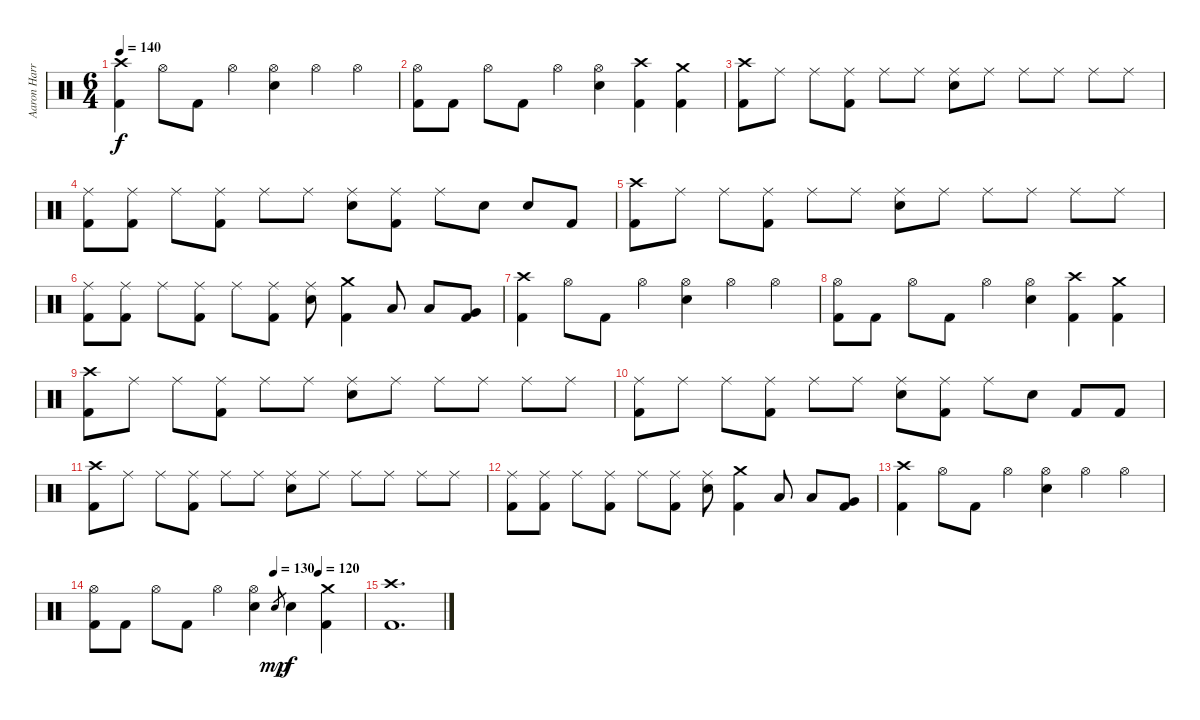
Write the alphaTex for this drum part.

\track ("Aaron Harris" "Aaron Harr") {instrument percussion}
\staff {score}
\articulation defaults
\ts (6 4)
\tempo 140
\clef neutral
\ks c
("Crash high (hit)" "Kick (hit) 2").4{dy f} "Hi-Hat (open)".8 "Kick (hit) 2".8 "Hi-Hat (open)".4 ("Hi-Hat (open)" "Electric Snare (hit)").4 "Hi-Hat (open)".4 "Hi-Hat (open)".4 |
("Hi-Hat (open)" "Kick (hit) 2").8 "Kick (hit) 2".8 "Hi-Hat (open)".8 "Kick (hit) 2".8 "Hi-Hat (open)".4 ("Hi-Hat (open)" "Electric Snare (hit)").4 ("Crash high (hit)" "Kick (hit) 2").4 ("Crash medium (hit)" "Kick (hit) 2").4 |
("Crash high (hit)" "Kick (hit) 2").8 "Ride (middle)".8 "Ride (middle)".8 ("Ride (middle)" "Kick (hit) 2").8 "Ride (middle)".8 "Ride (middle)".8 ("Ride (middle)" "Electric Snare (hit)").8 "Ride (middle)".8 "Ride (middle)".8 "Ride (middle)".8 "Ride (middle)".8 "Ride (middle)".8 |
("Ride (middle)" "Kick (hit) 2").8 ("Ride (middle)" "Kick (hit) 2").8 "Ride (middle)".8 ("Ride (middle)" "Kick (hit) 2").8 "Ride (middle)".8 "Ride (middle)".8 ("Ride (middle)" "Electric Snare (hit)").8 ("Ride (middle)" "Kick (hit) 2").8 "Ride (middle)".8 "Electric Snare (hit)".8 "Electric Snare (hit)".8 "Kick (hit) 2".8 |
("Crash high (hit)" "Kick (hit) 2").8 "Ride (middle)".8 "Ride (middle)".8 ("Ride (middle)" "Kick (hit) 2").8 "Ride (middle)".8 "Ride (middle)".8 ("Ride (middle)" "Electric Snare (hit)").8 "Ride (middle)".8 "Ride (middle)".8 "Ride (middle)".8 "Ride (middle)".8 "Ride (middle)".8 |
("Ride (middle)" "Kick (hit) 2").8 ("Ride (middle)" "Kick (hit) 2").8 "Ride (middle)".8 ("Ride (middle)" "Kick (hit) 2").8 "Ride (middle)".8 ("Ride (middle)" "Kick (hit) 2").8 ("Ride (middle)" "Electric Snare (hit)").8 ("Crash medium (hit)" "Kick (hit) 2").4 "Low Tom (hit)".8 "Low Tom (hit)".8 ("Very Low Tom (hit)" "Kick (hit) 2").8 |
("Crash high (hit)" "Kick (hit) 2").4 "Hi-Hat (open)".8 "Kick (hit) 2".8 "Hi-Hat (open)".4 ("Hi-Hat (open)" "Electric Snare (hit)").4 "Hi-Hat (open)".4 "Hi-Hat (open)".4 |
("Hi-Hat (open)" "Kick (hit) 2").8 "Kick (hit) 2".8 "Hi-Hat (open)".8 "Kick (hit) 2".8 "Hi-Hat (open)".4 ("Hi-Hat (open)" "Electric Snare (hit)").4 ("Crash high (hit)" "Kick (hit) 2").4 ("Crash medium (hit)" "Kick (hit) 2").4 |
("Crash high (hit)" "Kick (hit) 2").8 "Ride (middle)".8 "Ride (middle)".8 ("Ride (middle)" "Kick (hit) 2").8 "Ride (middle)".8 "Ride (middle)".8 ("Ride (middle)" "Electric Snare (hit)").8 "Ride (middle)".8 "Ride (middle)".8 "Ride (middle)".8 "Ride (middle)".8 "Ride (middle)".8 |
("Ride (middle)" "Kick (hit) 2").8 "Ride (middle)".8 "Ride (middle)".8 ("Ride (middle)" "Kick (hit) 2").8 "Ride (middle)".8 "Ride (middle)".8 ("Ride (middle)" "Electric Snare (hit)").8 ("Ride (middle)" "Kick (hit) 2").8 "Ride (middle)".8 "Electric Snare (hit)".8 "Kick (hit) 2".8 "Kick (hit) 2".8 |
("Crash high (hit)" "Kick (hit) 2").8 "Ride (middle)".8 "Ride (middle)".8 ("Ride (middle)" "Kick (hit) 2").8 "Ride (middle)".8 "Ride (middle)".8 ("Ride (middle)" "Electric Snare (hit)").8 "Ride (middle)".8 "Ride (middle)".8 "Ride (middle)".8 "Ride (middle)".8 "Ride (middle)".8 |
("Ride (middle)" "Kick (hit) 2").8 ("Ride (middle)" "Kick (hit) 2").8 "Ride (middle)".8 ("Ride (middle)" "Kick (hit) 2").8 "Ride (middle)".8 ("Ride (middle)" "Kick (hit) 2").8 ("Ride (middle)" "Electric Snare (hit)").8 ("Crash medium (hit)" "Kick (hit) 2").4 "Low Tom (hit)".8 "Low Tom (hit)".8 ("Very Low Tom (hit)" "Kick (hit) 2").8 |
("Crash high (hit)" "Kick (hit) 2").4 "Hi-Hat (open)".8 "Kick (hit) 2".8 "Hi-Hat (open)".4 ("Hi-Hat (open)" "Electric Snare (hit)").4 "Hi-Hat (open)".4 "Hi-Hat (open)".4 |
\tempo (130 0.6666666666666666)
\tempo (120 0.8333333333333334)
("Hi-Hat (open)" "Kick (hit) 2").8 "Kick (hit) 2".8 "Hi-Hat (open)".8 "Kick (hit) 2".8 "Hi-Hat (open)".4 ("Hi-Hat (open)" "Electric Snare (hit)").4 "Electric Snare (hit)".8{gr dy mp} "Electric Snare (hit)".4{dy f} ("Crash medium (hit)" "Kick (hit) 2").4 |
("Crash high (hit)" "Kick (hit) 2").1{d}
